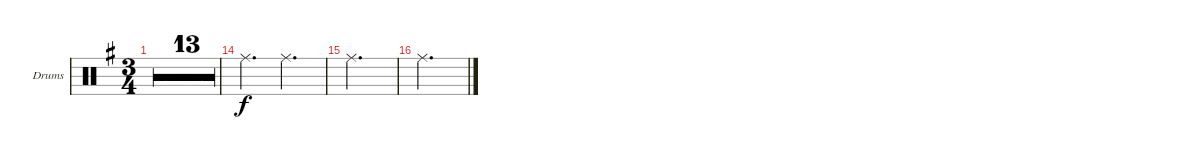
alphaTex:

\defaultSystemsLayout 4
\bracketExtendMode groupsimilarinstruments
\firstSystemTrackNameOrientation horizontal
\otherSystemsTrackNameOrientation horizontal
\track ("Drumkit" "Drums") {multiBarRest instrument percussion}
\staff {score}
\articulation defaults
\ts (3 4)
\tempo 115
\clef neutral
\ks eminor
|
|
|
|
|
|
|
|
|
|
|
|
|
"Ride (middle)".4{d} "Ride (middle)".4{d} |
"Ride (middle)".2{d} |
"Ride (middle)".2{d}
